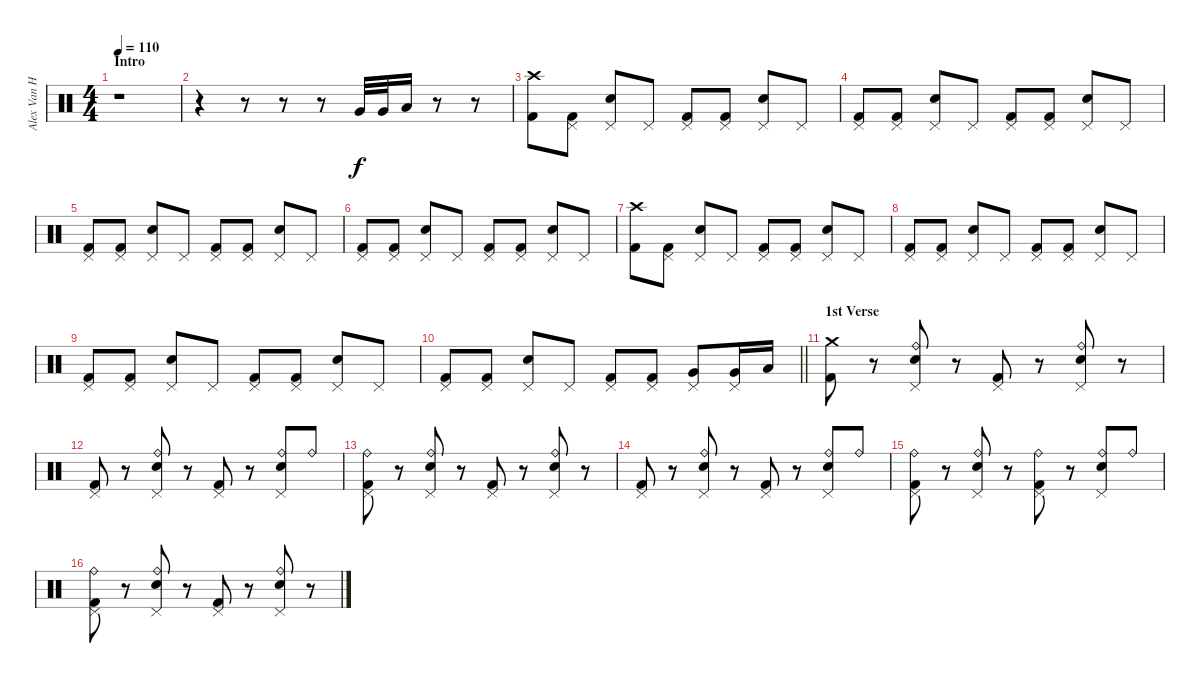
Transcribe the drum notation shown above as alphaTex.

\track ("Alex Van Halen" "Alex Van H") {instrument percussion}
\staff {score}
\articulation defaults
\ts (4 4)
\section ("" "Intro")
\tempo 110
\clef neutral
\ks c
r.1{dy f} |
r.4 r.8 r.8 r.8 "Very Low Tom (hit)".32 "Very Low Tom (hit)".32 "Low Floor Tom (hit)".16 r.8 r.8 |
("Crash high (hit)" "Kick (hit) 2").8 ("Pedal Hi-Hat (hit)" "Kick (hit) 2").8 ("Pedal Hi-Hat (hit)" "Snare (hit) 2").8 "Pedal Hi-Hat (hit)".8 ("Pedal Hi-Hat (hit)" "Kick (hit) 2").8 ("Pedal Hi-Hat (hit)" "Kick (hit) 2").8 ("Pedal Hi-Hat (hit)" "Snare (hit) 2").8 "Pedal Hi-Hat (hit)".8 |
("Pedal Hi-Hat (hit)" "Kick (hit) 2").8 ("Pedal Hi-Hat (hit)" "Kick (hit) 2").8 ("Pedal Hi-Hat (hit)" "Snare (hit) 2").8 "Pedal Hi-Hat (hit)".8 ("Pedal Hi-Hat (hit)" "Kick (hit) 2").8 ("Pedal Hi-Hat (hit)" "Kick (hit) 2").8 ("Pedal Hi-Hat (hit)" "Snare (hit) 2").8 "Pedal Hi-Hat (hit)".8 |
("Pedal Hi-Hat (hit)" "Kick (hit) 2").8 ("Pedal Hi-Hat (hit)" "Kick (hit) 2").8 ("Pedal Hi-Hat (hit)" "Snare (hit) 2").8 "Pedal Hi-Hat (hit)".8 ("Pedal Hi-Hat (hit)" "Kick (hit) 2").8 ("Pedal Hi-Hat (hit)" "Kick (hit) 2").8 ("Pedal Hi-Hat (hit)" "Snare (hit) 2").8 "Pedal Hi-Hat (hit)".8 |
("Pedal Hi-Hat (hit)" "Kick (hit) 2").8 ("Pedal Hi-Hat (hit)" "Kick (hit) 2").8 ("Pedal Hi-Hat (hit)" "Snare (hit) 2").8 "Pedal Hi-Hat (hit)".8 ("Pedal Hi-Hat (hit)" "Kick (hit) 2").8 ("Pedal Hi-Hat (hit)" "Kick (hit) 2").8 ("Pedal Hi-Hat (hit)" "Snare (hit) 2").8 "Pedal Hi-Hat (hit)".8 |
("Crash high (hit)" "Kick (hit) 2").8 ("Pedal Hi-Hat (hit)" "Kick (hit) 2").8 ("Pedal Hi-Hat (hit)" "Snare (hit) 2").8 "Pedal Hi-Hat (hit)".8 ("Pedal Hi-Hat (hit)" "Kick (hit) 2").8 ("Pedal Hi-Hat (hit)" "Kick (hit) 2").8 ("Pedal Hi-Hat (hit)" "Snare (hit) 2").8 "Pedal Hi-Hat (hit)".8 |
("Pedal Hi-Hat (hit)" "Kick (hit) 2").8 ("Pedal Hi-Hat (hit)" "Kick (hit) 2").8 ("Pedal Hi-Hat (hit)" "Snare (hit) 2").8 "Pedal Hi-Hat (hit)".8 ("Pedal Hi-Hat (hit)" "Kick (hit) 2").8 ("Pedal Hi-Hat (hit)" "Kick (hit) 2").8 ("Pedal Hi-Hat (hit)" "Snare (hit) 2").8 "Pedal Hi-Hat (hit)".8 |
("Pedal Hi-Hat (hit)" "Kick (hit) 2").8 ("Pedal Hi-Hat (hit)" "Kick (hit) 2").8 ("Pedal Hi-Hat (hit)" "Snare (hit) 2").8 "Pedal Hi-Hat (hit)".8 ("Pedal Hi-Hat (hit)" "Kick (hit) 2").8 ("Pedal Hi-Hat (hit)" "Kick (hit) 2").8 ("Pedal Hi-Hat (hit)" "Snare (hit) 2").8 "Pedal Hi-Hat (hit)".8 |
\barLineRight lightlight
("Pedal Hi-Hat (hit)" "Kick (hit) 2").8 ("Pedal Hi-Hat (hit)" "Kick (hit) 2").8 ("Pedal Hi-Hat (hit)" "Snare (hit) 2").8 "Pedal Hi-Hat (hit)".8 ("Pedal Hi-Hat (hit)" "Kick (hit) 2").8 ("Pedal Hi-Hat (hit)" "Kick (hit) 2").8 ("Pedal Hi-Hat (hit)" "Very Low Tom (hit)").8 ("Pedal Hi-Hat (hit)" "Very Low Tom (hit)").16 "Low Floor Tom (hit)".16 |
\section ("" "1st Verse")
("Crash medium (hit)" "Kick (hit) 2").8 r.8 ("Ride (bell)" "Pedal Hi-Hat (hit)" "Snare (hit) 2").8 r.8 ("Pedal Hi-Hat (hit)" "Kick (hit) 2").8 r.8 ("Ride (bell)" "Pedal Hi-Hat (hit)" "Snare (hit) 2").8 r.8 |
("Pedal Hi-Hat (hit)" "Kick (hit) 2").8 r.8 ("Ride (bell)" "Pedal Hi-Hat (hit)" "Snare (hit) 2").8 r.8 ("Pedal Hi-Hat (hit)" "Kick (hit) 2").8 r.8 ("Ride (bell)" "Pedal Hi-Hat (hit)" "Snare (hit) 2").8 "Ride (bell)".8 |
("Ride (bell)" "Pedal Hi-Hat (hit)" "Kick (hit) 2").8 r.8 ("Ride (bell)" "Pedal Hi-Hat (hit)" "Snare (hit) 2").8 r.8 ("Pedal Hi-Hat (hit)" "Kick (hit) 2").8 r.8 ("Ride (bell)" "Pedal Hi-Hat (hit)" "Snare (hit) 2").8 r.8 |
("Pedal Hi-Hat (hit)" "Kick (hit) 2").8 r.8 ("Ride (bell)" "Pedal Hi-Hat (hit)" "Snare (hit) 2").8 r.8 ("Pedal Hi-Hat (hit)" "Kick (hit) 2").8 r.8 ("Ride (bell)" "Pedal Hi-Hat (hit)" "Snare (hit) 2").8 "Ride (bell)".8 |
("Ride (bell)" "Pedal Hi-Hat (hit)" "Kick (hit) 2").8 r.8 ("Ride (bell)" "Pedal Hi-Hat (hit)" "Snare (hit) 2").8 r.8 ("Ride (bell)" "Pedal Hi-Hat (hit)" "Kick (hit) 2").8 r.8 ("Ride (bell)" "Pedal Hi-Hat (hit)" "Snare (hit) 2").8 "Ride (bell)".8 |
("Ride (bell)" "Pedal Hi-Hat (hit)" "Kick (hit) 2").8 r.8 ("Ride (bell)" "Pedal Hi-Hat (hit)" "Snare (hit) 2").8 r.8 ("Pedal Hi-Hat (hit)" "Kick (hit) 2").8 r.8 ("Ride (bell)" "Pedal Hi-Hat (hit)" "Snare (hit) 2").8 r.8
